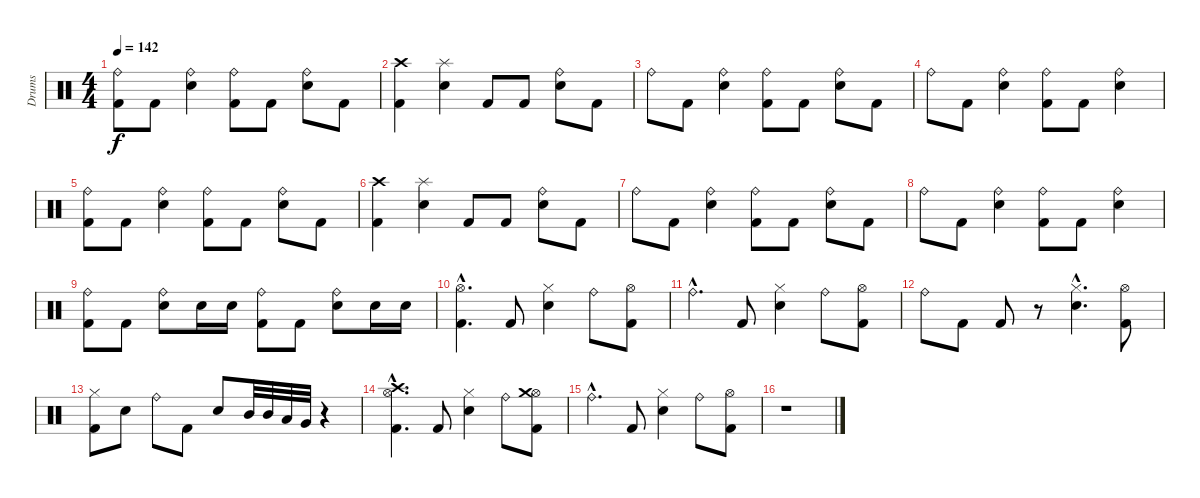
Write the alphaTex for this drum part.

\track ("Drums" "Drums") {instrument percussion}
\staff {score}
\articulation defaults
\ts (4 4)
\tempo 142
\clef neutral
\ks c
("Kick (hit) 2" "Ride (bell)").8{dy f} "Kick (hit) 2".8 ("Snare (hit) 2" "Ride (bell)").4 ("Kick (hit) 2" "Ride (bell)").8 "Kick (hit) 2".8 ("Snare (hit) 2" "Ride (bell)").8 "Kick (hit) 2".8 |
("Kick (hit) 2" "Crash high (hit)").4 ("Snare (hit) 2" "Splash (hit)").4 "Kick (hit) 2".8 "Kick (hit) 2".8 ("Snare (hit) 2" "Ride (bell)").8 "Kick (hit) 2".8 |
"Ride (bell)".8 "Kick (hit) 2".8 ("Snare (hit) 2" "Ride (bell)").4 ("Kick (hit) 2" "Ride (bell)").8 "Kick (hit) 2".8 ("Snare (hit) 2" "Ride (bell)").8 "Kick (hit) 2".8 |
"Ride (bell)".8 "Kick (hit) 2".8 ("Snare (hit) 2" "Ride (bell)").4 ("Kick (hit) 2" "Ride (bell)").8 "Kick (hit) 2".8 ("Snare (hit) 2" "Ride (bell)").4 |
("Kick (hit) 2" "Ride (bell)").8 "Kick (hit) 2".8 ("Snare (hit) 2" "Ride (bell)").4 ("Kick (hit) 2" "Ride (bell)").8 "Kick (hit) 2".8 ("Snare (hit) 2" "Ride (bell)").8 "Kick (hit) 2".8 |
("Kick (hit) 2" "Crash high (hit)").4 ("Snare (hit) 2" "Splash (hit)").4 "Kick (hit) 2".8 "Kick (hit) 2".8 ("Snare (hit) 2" "Ride (bell)").8 "Kick (hit) 2".8 |
"Ride (bell)".8 "Kick (hit) 2".8 ("Snare (hit) 2" "Ride (bell)").4 ("Kick (hit) 2" "Ride (bell)").8 "Kick (hit) 2".8 ("Snare (hit) 2" "Ride (bell)").8 "Kick (hit) 2".8 |
"Ride (bell)".8 "Kick (hit) 2".8 ("Snare (hit) 2" "Ride (bell)").4 ("Kick (hit) 2" "Ride (bell)").8 "Kick (hit) 2".8 ("Snare (hit) 2" "Ride (bell)").4 |
("Kick (hit) 2" "Ride (bell)").8 "Kick (hit) 2".8 ("Snare (hit) 2" "Ride (bell)").8 "Snare (hit) 2".16 "Snare (hit) 2".16 ("Kick (hit) 2" "Ride (bell)").8 "Kick (hit) 2".8 ("Snare (hit) 2" "Ride (bell)").8 "Snare (hit) 2".16 "Snare (hit) 2".16 |
("Kick (hit) 2"{hac} "Hi-Hat (open)"{hac}).4{d} "Kick (hit) 2".8 ("Snare (hit) 2" "Hi-Hat (closed)").4 "Ride (bell)".8 ("Kick (hit) 2" "Hi-Hat (open)").8 |
"Ride (bell)"{hac}.4{d} "Kick (hit) 2".8 ("Snare (hit) 2" "Hi-Hat (closed)").4 "Ride (bell)".8 ("Kick (hit) 2" "Hi-Hat (open)").8 |
"Ride (bell)".8 "Kick (hit) 2".8 "Kick (hit) 2".8 r.8 ("Snare (hit) 2"{hac} "Hi-Hat (closed)"{hac}).4{d} ("Kick (hit) 2" "Hi-Hat (open)").8 |
("Kick (hit) 2" "Hi-Hat (closed)").8 "Snare (hit) 2".8 "Ride (bell)".8 "Kick (hit) 2".8 "Snare (hit) 2".8 "Mid Tom (hit)".32 "Mid Tom (hit)".32 "Low Tom (hit)".32 "Very Low Tom (hit)".32 r.4 |
("Kick (hit) 2"{hac} "Hi-Hat (open)"{hac} "Crash high (hit)"{hac}).4{d} "Kick (hit) 2".8 ("Snare (hit) 2" "Hi-Hat (closed)").4 "Ride (bell)".8 ("Kick (hit) 2" "Hi-Hat (open)" "Crash medium (hit)").8 |
"Ride (bell)"{hac}.4{d} "Kick (hit) 2".8 ("Snare (hit) 2" "Hi-Hat (closed)").4 "Ride (bell)".8 ("Kick (hit) 2" "Hi-Hat (open)").8 |
r.1
